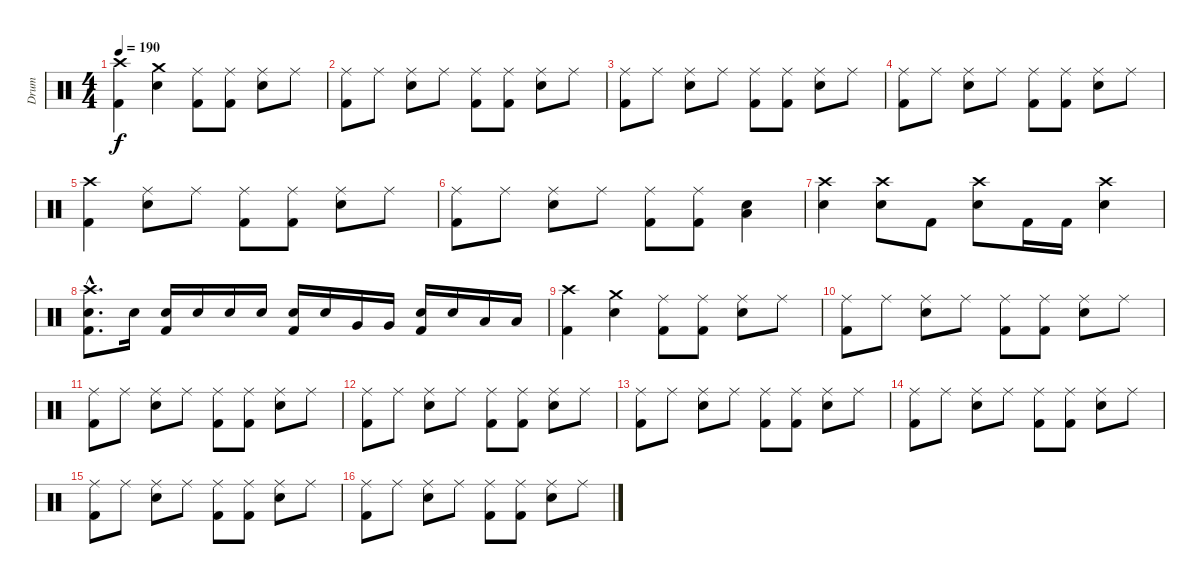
\track ("Drum" "Drum") {instrument percussion}
\staff {score}
\articulation defaults
\ts (4 4)
\tempo 190
\clef neutral
\ks c
("Crash high (hit)" "Kick (hit) 2").4{dy f} ("Crash medium (hit)" "Electric Snare (hit)").4 ("Ride (middle)" "Kick (hit) 2").8 ("Ride (middle)" "Kick (hit) 2").8 ("Ride (middle)" "Electric Snare (hit)").8 "Ride (middle)".8 |
("Ride (middle)" "Kick (hit) 2").8 "Ride (middle)".8 ("Ride (middle)" "Electric Snare (hit)").8 "Ride (middle)".8 ("Ride (middle)" "Kick (hit) 2").8 ("Ride (middle)" "Kick (hit) 2").8 ("Ride (middle)" "Electric Snare (hit)").8 "Ride (middle)".8 |
("Ride (middle)" "Kick (hit) 2").8 "Ride (middle)".8 ("Ride (middle)" "Electric Snare (hit)").8 "Ride (middle)".8 ("Ride (middle)" "Kick (hit) 2").8 ("Ride (middle)" "Kick (hit) 2").8 ("Ride (middle)" "Electric Snare (hit)").8 "Ride (middle)".8 |
("Ride (middle)" "Kick (hit) 2").8 "Ride (middle)".8 ("Ride (middle)" "Electric Snare (hit)").8 "Ride (middle)".8 ("Ride (middle)" "Kick (hit) 2").8 ("Ride (middle)" "Kick (hit) 2").8 ("Ride (middle)" "Electric Snare (hit)").8 "Ride (middle)".8 |
("Crash high (hit)" "Kick (hit) 2").4 ("Ride (middle)" "Electric Snare (hit)").8 "Ride (middle)".8 ("Ride (middle)" "Kick (hit) 2").8 ("Ride (middle)" "Kick (hit) 2").8 ("Ride (middle)" "Electric Snare (hit)").8 "Ride (middle)".8 |
("Ride (middle)" "Kick (hit) 2").8 "Ride (middle)".8 ("Ride (middle)" "Electric Snare (hit)").8 "Ride (middle)".8 ("Ride (middle)" "Kick (hit) 2").8 ("Ride (middle)" "Kick (hit) 2").8 ("Electric Snare (hit)" "Low Floor Tom (hit)").4 |
("Crash high (hit)" "Electric Snare (hit)").4 ("Crash high (hit)" "Electric Snare (hit)").8 "Kick (hit) 2".8 ("Crash high (hit)" "Electric Snare (hit)").8 "Kick (hit) 2".16 "Kick (hit) 2".16 ("Crash high (hit)" "Electric Snare (hit)").4 |
("Crash high (hit)"{hac} "Electric Snare (hit)"{hac} "Kick (hit) 2"{hac}).8{d} "Electric Snare (hit)".16 ("Electric Snare (hit)" "Kick (hit) 2").16 "Electric Snare (hit)".16 "Electric Snare (hit)".16 "Electric Snare (hit)".16 ("Electric Snare (hit)" "Kick (hit) 2").16 "Electric Snare (hit)".16 "Very Low Tom (hit)".16 "Very Low Tom (hit)".16 ("Electric Snare (hit)" "Kick (hit) 2").16 "Electric Snare (hit)".16 "Low Floor Tom (hit)".16 "Low Floor Tom (hit)".16 |
("Crash high (hit)" "Kick (hit) 2").4 ("Crash medium (hit)" "Electric Snare (hit)").4 ("Ride (middle)" "Kick (hit) 2").8 ("Ride (middle)" "Kick (hit) 2").8 ("Ride (middle)" "Electric Snare (hit)").8 "Ride (middle)".8 |
("Ride (middle)" "Kick (hit) 2").8 "Ride (middle)".8 ("Ride (middle)" "Electric Snare (hit)").8 "Ride (middle)".8 ("Ride (middle)" "Kick (hit) 2").8 ("Ride (middle)" "Kick (hit) 2").8 ("Ride (middle)" "Electric Snare (hit)").8 "Ride (middle)".8 |
("Ride (middle)" "Kick (hit) 2").8 "Ride (middle)".8 ("Ride (middle)" "Electric Snare (hit)").8 "Ride (middle)".8 ("Ride (middle)" "Kick (hit) 2").8 ("Ride (middle)" "Kick (hit) 2").8 ("Ride (middle)" "Electric Snare (hit)").8 "Ride (middle)".8 |
("Ride (middle)" "Kick (hit) 2").8 "Ride (middle)".8 ("Ride (middle)" "Electric Snare (hit)").8 "Ride (middle)".8 ("Ride (middle)" "Kick (hit) 2").8 ("Ride (middle)" "Kick (hit) 2").8 ("Ride (middle)" "Electric Snare (hit)").8 "Ride (middle)".8 |
("Ride (middle)" "Kick (hit) 2").8 "Ride (middle)".8 ("Ride (middle)" "Electric Snare (hit)").8 "Ride (middle)".8 ("Ride (middle)" "Kick (hit) 2").8 ("Ride (middle)" "Kick (hit) 2").8 ("Ride (middle)" "Electric Snare (hit)").8 "Ride (middle)".8 |
("Ride (middle)" "Kick (hit) 2").8 "Ride (middle)".8 ("Ride (middle)" "Electric Snare (hit)").8 "Ride (middle)".8 ("Ride (middle)" "Kick (hit) 2").8 ("Ride (middle)" "Kick (hit) 2").8 ("Ride (middle)" "Electric Snare (hit)").8 "Ride (middle)".8 |
("Ride (middle)" "Kick (hit) 2").8 "Ride (middle)".8 ("Ride (middle)" "Electric Snare (hit)").8 "Ride (middle)".8 ("Ride (middle)" "Kick (hit) 2").8 ("Ride (middle)" "Kick (hit) 2").8 ("Ride (middle)" "Electric Snare (hit)").8 "Ride (middle)".8 |
("Ride (middle)" "Kick (hit) 2").8 "Ride (middle)".8 ("Ride (middle)" "Electric Snare (hit)").8 "Ride (middle)".8 ("Ride (middle)" "Kick (hit) 2").8 ("Ride (middle)" "Kick (hit) 2").8 ("Ride (middle)" "Electric Snare (hit)").8 "Ride (middle)".8
